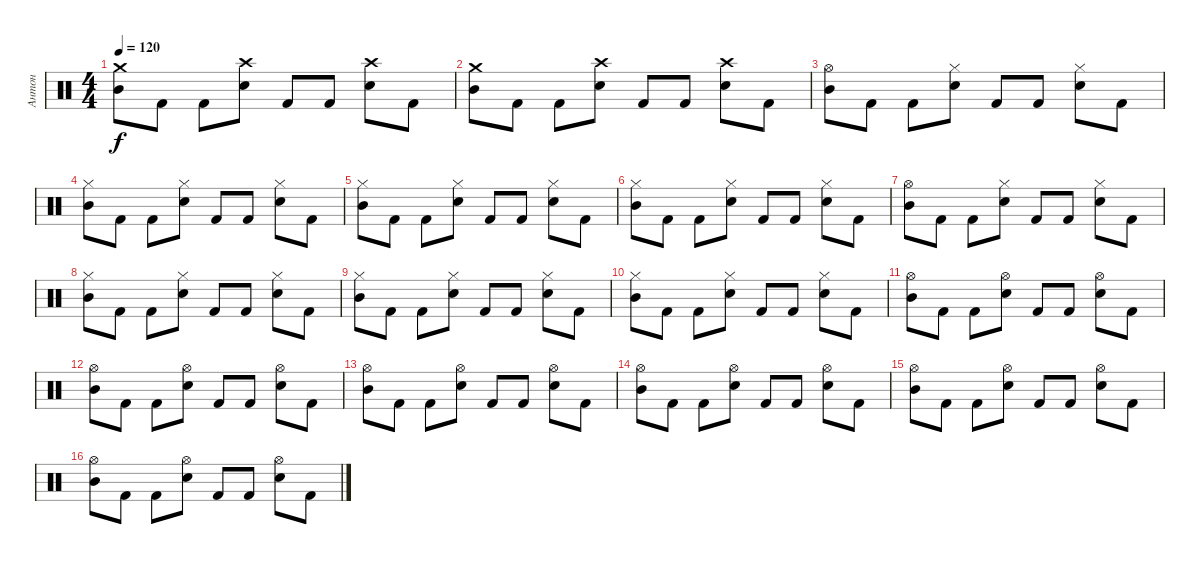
\track ("Антон" "Антон") {instrument percussion}
\staff {score}
\articulation defaults
\ts (4 4)
\tempo 120
\clef neutral
\ks c
("Crash medium (hit)" "Mid Tom (hit)").8{dy f} "Kick (hit) 2".8 "Kick (hit) 2".8 ("Crash high (hit)" "Electric Snare (hit)").8 "Kick (hit) 2".8 "Kick (hit) 2".8 ("Crash high (hit)" "Electric Snare (hit)").8 "Kick (hit) 2".8 |
("Crash medium (hit)" "Mid Tom (hit)").8 "Kick (hit) 2".8 "Kick (hit) 2".8 ("Crash high (hit)" "Electric Snare (hit)").8 "Kick (hit) 2".8 "Kick (hit) 2".8 ("Crash high (hit)" "Electric Snare (hit)").8 "Kick (hit) 2".8 |
("Hi-Hat (open)" "Mid Tom (hit)").8 "Kick (hit) 2".8 "Kick (hit) 2".8 ("Hi-Hat (closed)" "Electric Snare (hit)").8 "Kick (hit) 2".8 "Kick (hit) 2".8 ("Hi-Hat (closed)" "Electric Snare (hit)").8 "Kick (hit) 2".8 |
("Hi-Hat (closed)" "Mid Tom (hit)").8 "Kick (hit) 2".8 "Kick (hit) 2".8 ("Hi-Hat (closed)" "Electric Snare (hit)").8 "Kick (hit) 2".8 "Kick (hit) 2".8 ("Hi-Hat (closed)" "Electric Snare (hit)").8 "Kick (hit) 2".8 |
("Hi-Hat (closed)" "Mid Tom (hit)").8 "Kick (hit) 2".8 "Kick (hit) 2".8 ("Hi-Hat (closed)" "Electric Snare (hit)").8 "Kick (hit) 2".8 "Kick (hit) 2".8 ("Hi-Hat (closed)" "Electric Snare (hit)").8 "Kick (hit) 2".8 |
("Hi-Hat (closed)" "Mid Tom (hit)").8 "Kick (hit) 2".8 "Kick (hit) 2".8 ("Hi-Hat (closed)" "Electric Snare (hit)").8 "Kick (hit) 2".8 "Kick (hit) 2".8 ("Hi-Hat (closed)" "Electric Snare (hit)").8 "Kick (hit) 2".8 |
("Hi-Hat (open)" "Mid Tom (hit)").8 "Kick (hit) 2".8 "Kick (hit) 2".8 ("Hi-Hat (closed)" "Electric Snare (hit)").8 "Kick (hit) 2".8 "Kick (hit) 2".8 ("Hi-Hat (closed)" "Electric Snare (hit)").8 "Kick (hit) 2".8 |
("Hi-Hat (closed)" "Mid Tom (hit)").8 "Kick (hit) 2".8 "Kick (hit) 2".8 ("Hi-Hat (closed)" "Electric Snare (hit)").8 "Kick (hit) 2".8 "Kick (hit) 2".8 ("Hi-Hat (closed)" "Electric Snare (hit)").8 "Kick (hit) 2".8 |
("Hi-Hat (closed)" "Mid Tom (hit)").8 "Kick (hit) 2".8 "Kick (hit) 2".8 ("Hi-Hat (closed)" "Electric Snare (hit)").8 "Kick (hit) 2".8 "Kick (hit) 2".8 ("Hi-Hat (closed)" "Electric Snare (hit)").8 "Kick (hit) 2".8 |
("Hi-Hat (closed)" "Mid Tom (hit)").8 "Kick (hit) 2".8 "Kick (hit) 2".8 ("Hi-Hat (closed)" "Electric Snare (hit)").8 "Kick (hit) 2".8 "Kick (hit) 2".8 ("Hi-Hat (closed)" "Electric Snare (hit)").8 "Kick (hit) 2".8 |
("Hi-Hat (open)" "Mid Tom (hit)").8 "Kick (hit) 2".8 "Kick (hit) 2".8 ("Hi-Hat (open)" "Electric Snare (hit)").8 "Kick (hit) 2".8 "Kick (hit) 2".8 ("Hi-Hat (open)" "Electric Snare (hit)").8 "Kick (hit) 2".8 |
("Hi-Hat (open)" "Mid Tom (hit)").8 "Kick (hit) 2".8 "Kick (hit) 2".8 ("Hi-Hat (open)" "Electric Snare (hit)").8 "Kick (hit) 2".8 "Kick (hit) 2".8 ("Hi-Hat (open)" "Electric Snare (hit)").8 "Kick (hit) 2".8 |
("Hi-Hat (open)" "Mid Tom (hit)").8 "Kick (hit) 2".8 "Kick (hit) 2".8 ("Hi-Hat (open)" "Electric Snare (hit)").8 "Kick (hit) 2".8 "Kick (hit) 2".8 ("Hi-Hat (open)" "Electric Snare (hit)").8 "Kick (hit) 2".8 |
("Hi-Hat (open)" "Mid Tom (hit)").8 "Kick (hit) 2".8 "Kick (hit) 2".8 ("Hi-Hat (open)" "Electric Snare (hit)").8 "Kick (hit) 2".8 "Kick (hit) 2".8 ("Hi-Hat (open)" "Electric Snare (hit)").8 "Kick (hit) 2".8 |
("Hi-Hat (open)" "Mid Tom (hit)").8 "Kick (hit) 2".8 "Kick (hit) 2".8 ("Hi-Hat (open)" "Electric Snare (hit)").8 "Kick (hit) 2".8 "Kick (hit) 2".8 ("Hi-Hat (open)" "Electric Snare (hit)").8 "Kick (hit) 2".8 |
("Hi-Hat (open)" "Mid Tom (hit)").8 "Kick (hit) 2".8 "Kick (hit) 2".8 ("Hi-Hat (open)" "Electric Snare (hit)").8 "Kick (hit) 2".8 "Kick (hit) 2".8 ("Hi-Hat (open)" "Electric Snare (hit)").8 "Kick (hit) 2".8
